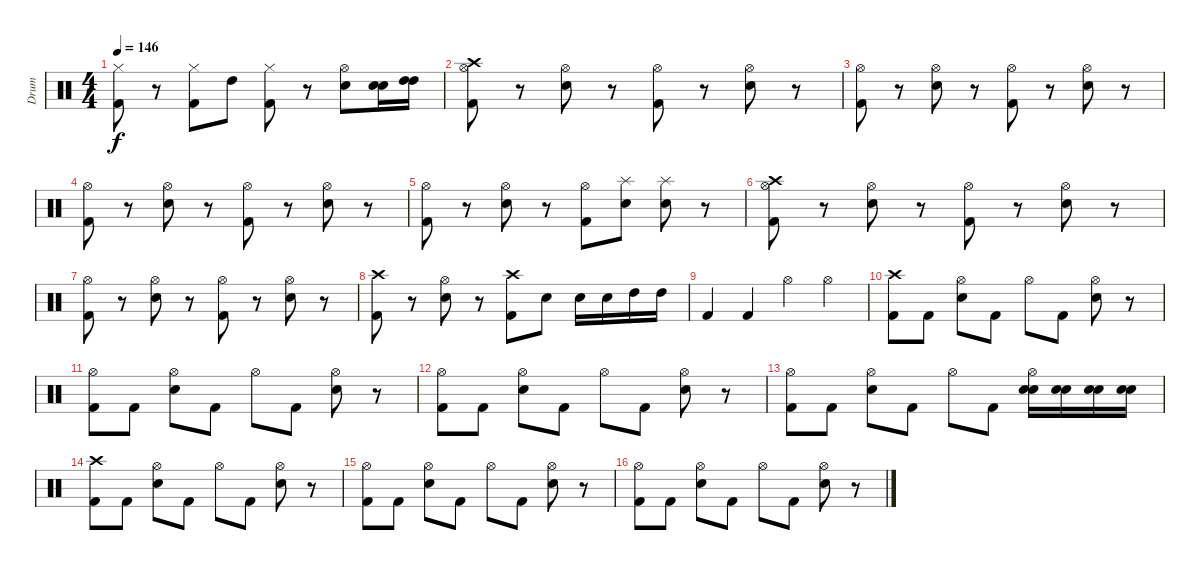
\track ("Drum" "Drum") {instrument percussion}
\staff {score}
\articulation defaults
\ts (4 4)
\tempo 146
\clef neutral
\ks c
("Hi-Hat (closed)" "Kick (hit) 2").8{dy f} r.8 ("Hi-Hat (closed)" "Kick (hit) 2").8 "High Tom (hit)".8 ("Hi-Hat (closed)" "Kick (hit) 2").8 r.8 ("Hi-Hat (open)" "Electric Snare (hit)").8 ("Electric Snare (hit)" "Electric Snare (hit)").16 ("High Tom (hit)" "High Tom (hit)").16 |
("Crash high (hit)" "Hi-Hat (open)" "Kick (hit) 2").8 r.8 ("Hi-Hat (open)" "Electric Snare (hit)").8 r.8 ("Hi-Hat (open)" "Kick (hit) 2").8 r.8 ("Hi-Hat (open)" "Electric Snare (hit)").8 r.8 |
("Hi-Hat (open)" "Kick (hit) 2").8 r.8 ("Hi-Hat (open)" "Electric Snare (hit)").8 r.8 ("Hi-Hat (open)" "Kick (hit) 2").8 r.8 ("Hi-Hat (open)" "Electric Snare (hit)").8 r.8 |
("Hi-Hat (open)" "Kick (hit) 2").8 r.8 ("Hi-Hat (open)" "Electric Snare (hit)").8 r.8 ("Hi-Hat (open)" "Kick (hit) 2").8 r.8 ("Hi-Hat (open)" "Electric Snare (hit)").8 r.8 |
("Hi-Hat (open)" "Kick (hit) 2").8 r.8 ("Hi-Hat (open)" "Electric Snare (hit)").8 r.8 ("Hi-Hat (open)" "Kick (hit) 2").8 ("Splash (hit)" "Electric Snare (hit)").8 ("Splash (hit)" "Electric Snare (hit)").8 r.8 |
("Crash high (hit)" "Hi-Hat (open)" "Kick (hit) 2").8 r.8 ("Hi-Hat (open)" "Electric Snare (hit)").8 r.8 ("Hi-Hat (open)" "Kick (hit) 2").8 r.8 ("Hi-Hat (open)" "Electric Snare (hit)").8 r.8 |
("Hi-Hat (open)" "Kick (hit) 2").8 r.8 ("Hi-Hat (open)" "Electric Snare (hit)").8 r.8 ("Hi-Hat (open)" "Kick (hit) 2").8 r.8 ("Hi-Hat (open)" "Electric Snare (hit)").8 r.8 |
("Crash high (hit)" "Kick (hit) 2").8 r.8 ("Hi-Hat (open)" "Electric Snare (hit)").8 r.8 ("Crash high (hit)" "Kick (hit) 2").8 "Electric Snare (hit)".8 "Electric Snare (hit)".16 "Electric Snare (hit)".16 "High Tom (hit)".16 "High Tom (hit)".16 |
"Kick (hit) 2".4 "Kick (hit) 2".4 "Hi-Hat (open)".4 "Hi-Hat (open)".4 |
("Crash high (hit)" "Kick (hit) 2").8 "Kick (hit) 2".8 ("Hi-Hat (open)" "Electric Snare (hit)").8 "Kick (hit) 2".8 "Hi-Hat (open)".8 "Kick (hit) 2".8 ("Hi-Hat (open)" "Electric Snare (hit)").8 r.8 |
("Hi-Hat (open)" "Kick (hit) 2").8 "Kick (hit) 2".8 ("Hi-Hat (open)" "Electric Snare (hit)").8 "Kick (hit) 2".8 "Hi-Hat (open)".8 "Kick (hit) 2".8 ("Hi-Hat (open)" "Electric Snare (hit)").8 r.8 |
("Hi-Hat (open)" "Kick (hit) 2").8 "Kick (hit) 2".8 ("Hi-Hat (open)" "Electric Snare (hit)").8 "Kick (hit) 2".8 "Hi-Hat (open)".8 "Kick (hit) 2".8 ("Hi-Hat (open)" "Electric Snare (hit)").8 r.8 |
("Hi-Hat (open)" "Kick (hit) 2").8 "Kick (hit) 2".8 ("Hi-Hat (open)" "Electric Snare (hit)").8 "Kick (hit) 2".8 "Hi-Hat (open)".8 "Kick (hit) 2".8 ("Hi-Hat (open)" "Electric Snare (hit)" "Electric Snare (hit)").16 ("Electric Snare (hit)" "Electric Snare (hit)").16 ("Electric Snare (hit)" "Electric Snare (hit)").16 ("Electric Snare (hit)" "Electric Snare (hit)").16 |
("Crash high (hit)" "Kick (hit) 2").8 "Kick (hit) 2".8 ("Hi-Hat (open)" "Electric Snare (hit)").8 "Kick (hit) 2".8 "Hi-Hat (open)".8 "Kick (hit) 2".8 ("Hi-Hat (open)" "Electric Snare (hit)").8 r.8 |
("Hi-Hat (open)" "Kick (hit) 2").8 "Kick (hit) 2".8 ("Hi-Hat (open)" "Electric Snare (hit)").8 "Kick (hit) 2".8 "Hi-Hat (open)".8 "Kick (hit) 2".8 ("Hi-Hat (open)" "Electric Snare (hit)").8 r.8 |
("Hi-Hat (open)" "Kick (hit) 2").8 "Kick (hit) 2".8 ("Hi-Hat (open)" "Electric Snare (hit)").8 "Kick (hit) 2".8 "Hi-Hat (open)".8 "Kick (hit) 2".8 ("Hi-Hat (open)" "Electric Snare (hit)").8 r.8
